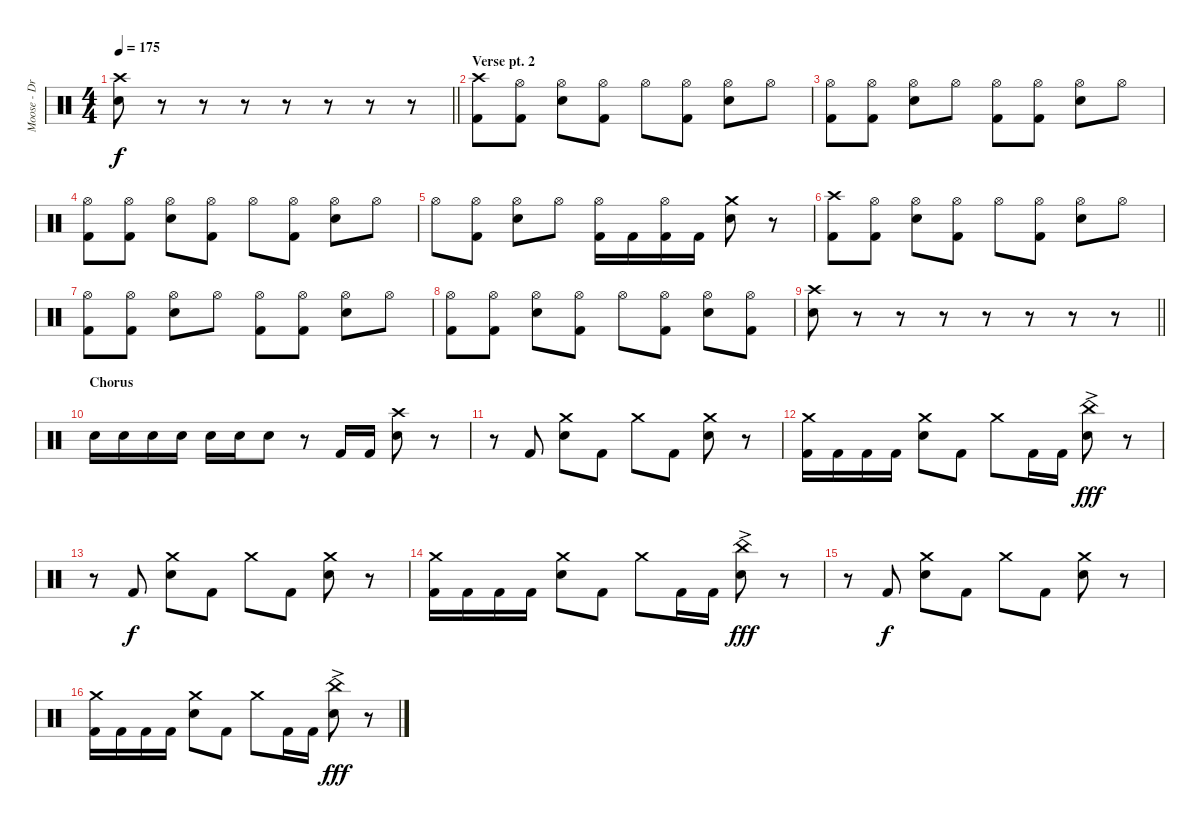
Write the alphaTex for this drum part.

\track ("Moose - Drums" "Moose - Dr") {instrument percussion}
\staff {score}
\articulation defaults
\ts (4 4)
\tempo 175
\clef neutral
\barLineRight lightlight
\ks c
("Crash high (hit)" "Electric Snare (hit)").8{dy f} r.8 r.8 r.8 r.8 r.8 r.8 r.8 |
\section ("" "Verse pt. 2")
("Crash high (hit)" "Kick (hit) 2").8 ("Hi-Hat (open)" "Kick (hit) 2").8 ("Hi-Hat (open)" "Electric Snare (hit)").8 ("Hi-Hat (open)" "Kick (hit) 2").8 "Hi-Hat (open)".8 ("Hi-Hat (open)" "Kick (hit) 2").8 ("Hi-Hat (open)" "Electric Snare (hit)").8 "Hi-Hat (open)".8 |
("Hi-Hat (open)" "Kick (hit) 2").8 ("Hi-Hat (open)" "Kick (hit) 2").8 ("Hi-Hat (open)" "Electric Snare (hit)").8 "Hi-Hat (open)".8 ("Hi-Hat (open)" "Kick (hit) 2").8 ("Hi-Hat (open)" "Kick (hit) 2").8 ("Hi-Hat (open)" "Electric Snare (hit)").8 "Hi-Hat (open)".8 |
("Hi-Hat (open)" "Kick (hit) 2").8 ("Hi-Hat (open)" "Kick (hit) 2").8 ("Hi-Hat (open)" "Electric Snare (hit)").8 ("Hi-Hat (open)" "Kick (hit) 2").8 "Hi-Hat (open)".8 ("Hi-Hat (open)" "Kick (hit) 2").8 ("Hi-Hat (open)" "Electric Snare (hit)").8 "Hi-Hat (open)".8 |
"Hi-Hat (open)".8 ("Hi-Hat (open)" "Kick (hit) 2").8 ("Hi-Hat (open)" "Electric Snare (hit)").8 "Hi-Hat (open)".8 ("Hi-Hat (open)" "Kick (hit) 2").16 "Kick (hit) 2".16 ("Hi-Hat (open)" "Kick (hit) 2").16 "Kick (hit) 2".16 ("Crash medium (hit)" "Electric Snare (hit)").8 r.8 |
("Crash high (hit)" "Kick (hit) 2").8 ("Hi-Hat (open)" "Kick (hit) 2").8 ("Hi-Hat (open)" "Electric Snare (hit)").8 ("Hi-Hat (open)" "Kick (hit) 2").8 "Hi-Hat (open)".8 ("Hi-Hat (open)" "Kick (hit) 2").8 ("Hi-Hat (open)" "Electric Snare (hit)").8 "Hi-Hat (open)".8 |
("Hi-Hat (open)" "Kick (hit) 2").8 ("Hi-Hat (open)" "Kick (hit) 2").8 ("Hi-Hat (open)" "Electric Snare (hit)").8 "Hi-Hat (open)".8 ("Hi-Hat (open)" "Kick (hit) 2").8 ("Hi-Hat (open)" "Kick (hit) 2").8 ("Hi-Hat (open)" "Electric Snare (hit)").8 "Hi-Hat (open)".8 |
("Hi-Hat (open)" "Kick (hit) 2").8 ("Hi-Hat (open)" "Kick (hit) 2").8 ("Hi-Hat (open)" "Electric Snare (hit)").8 ("Hi-Hat (open)" "Kick (hit) 2").8 "Hi-Hat (open)".8 ("Hi-Hat (open)" "Kick (hit) 2").8 ("Hi-Hat (open)" "Electric Snare (hit)").8 ("Hi-Hat (open)" "Kick (hit) 2").8 |
\barLineRight lightlight
("Crash high (hit)" "Electric Snare (hit)").8 r.8 r.8 r.8 r.8 r.8 r.8 r.8 |
\section ("" "Chorus")
"Electric Snare (hit)".16 "Electric Snare (hit)".16 "Electric Snare (hit)".16 "Electric Snare (hit)".16 "Electric Snare (hit)".16 "Electric Snare (hit)".16 "Electric Snare (hit)".8 r.8 "Kick (hit) 2".16 "Kick (hit) 2".16 ("Crash high (hit)" "Electric Snare (hit)").8 r.8 |
r.8 "Kick (hit) 2".8 ("Crash medium (hit)" "Electric Snare (hit)").8 "Kick (hit) 2".8 "Crash medium (hit)".8 "Kick (hit) 2".8 ("Crash medium (hit)" "Electric Snare (hit)").8 r.8 |
("Crash medium (hit)" "Kick (hit) 2").16 "Kick (hit) 2".16 "Kick (hit) 2".16 "Kick (hit) 2".16 ("Crash medium (hit)" "Electric Snare (hit)").8 "Kick (hit) 2".8 "Crash medium (hit)".8 "Kick (hit) 2".16 "Kick (hit) 2".16 ("China (hit)"{ac} "Electric Snare (hit)").8{dy fff} r.8 |
r.8 "Kick (hit) 2".8{dy f} ("Crash medium (hit)" "Electric Snare (hit)").8 "Kick (hit) 2".8 "Crash medium (hit)".8 "Kick (hit) 2".8 ("Crash medium (hit)" "Electric Snare (hit)").8 r.8 |
("Crash medium (hit)" "Kick (hit) 2").16 "Kick (hit) 2".16 "Kick (hit) 2".16 "Kick (hit) 2".16 ("Crash medium (hit)" "Electric Snare (hit)").8 "Kick (hit) 2".8 "Crash medium (hit)".8 "Kick (hit) 2".16 "Kick (hit) 2".16 ("China (hit)"{ac} "Electric Snare (hit)").8{dy fff} r.8 |
r.8 "Kick (hit) 2".8{dy f} ("Crash medium (hit)" "Electric Snare (hit)").8 "Kick (hit) 2".8 "Crash medium (hit)".8 "Kick (hit) 2".8 ("Crash medium (hit)" "Electric Snare (hit)").8 r.8 |
("Crash medium (hit)" "Kick (hit) 2").16 "Kick (hit) 2".16 "Kick (hit) 2".16 "Kick (hit) 2".16 ("Crash medium (hit)" "Electric Snare (hit)").8 "Kick (hit) 2".8 "Crash medium (hit)".8 "Kick (hit) 2".16 "Kick (hit) 2".16 ("China (hit)"{ac} "Electric Snare (hit)").8{dy fff} r.8
